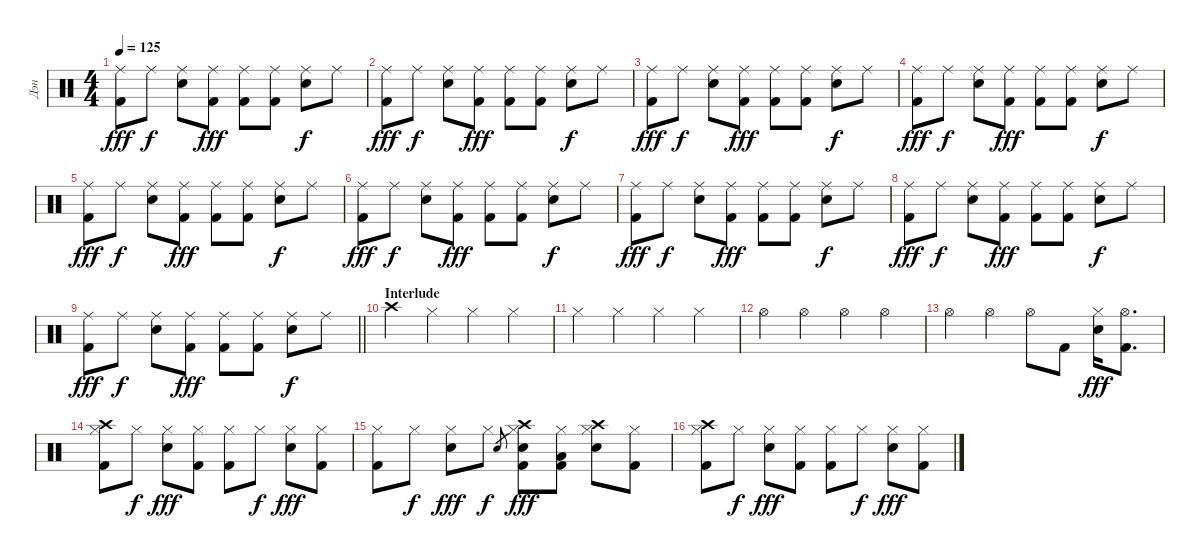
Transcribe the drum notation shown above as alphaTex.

\track ("Дэн" "Дэн") {instrument percussion}
\staff {score}
\articulation defaults
\ts (4 4)
\tempo 125
\clef neutral
\ks c
("Ride (middle)" "Kick (hit) 2").8{dy fff} "Ride (middle)".8{dy f} ("Ride (middle)" "Electric Snare (hit)").8 ("Ride (middle)" "Kick (hit) 2").8{dy fff} ("Ride (middle)" "Kick (hit) 2").8 ("Ride (middle)" "Kick (hit) 2").8 ("Ride (middle)" "Electric Snare (hit)").8{dy f} "Ride (middle)".8 |
("Ride (middle)" "Kick (hit) 2").8{dy fff} "Ride (middle)".8{dy f} ("Ride (middle)" "Electric Snare (hit)").8 ("Ride (middle)" "Kick (hit) 2").8{dy fff} ("Ride (middle)" "Kick (hit) 2").8 ("Ride (middle)" "Kick (hit) 2").8 ("Ride (middle)" "Electric Snare (hit)").8{dy f} "Ride (middle)".8 |
("Ride (middle)" "Kick (hit) 2").8{dy fff} "Ride (middle)".8{dy f} ("Ride (middle)" "Electric Snare (hit)").8 ("Ride (middle)" "Kick (hit) 2").8{dy fff} ("Ride (middle)" "Kick (hit) 2").8 ("Ride (middle)" "Kick (hit) 2").8 ("Ride (middle)" "Electric Snare (hit)").8{dy f} "Ride (middle)".8 |
("Ride (middle)" "Kick (hit) 2").8{dy fff} "Ride (middle)".8{dy f} ("Ride (middle)" "Electric Snare (hit)").8 ("Ride (middle)" "Kick (hit) 2").8{dy fff} ("Ride (middle)" "Kick (hit) 2").8 ("Ride (middle)" "Kick (hit) 2").8 ("Ride (middle)" "Electric Snare (hit)").8{dy f} "Ride (middle)".8 |
("Ride (middle)" "Kick (hit) 2").8{dy fff} "Ride (middle)".8{dy f} ("Ride (middle)" "Electric Snare (hit)").8 ("Ride (middle)" "Kick (hit) 2").8{dy fff} ("Ride (middle)" "Kick (hit) 2").8 ("Ride (middle)" "Kick (hit) 2").8 ("Ride (middle)" "Electric Snare (hit)").8{dy f} "Ride (middle)".8 |
("Ride (middle)" "Kick (hit) 2").8{dy fff} "Ride (middle)".8{dy f} ("Ride (middle)" "Electric Snare (hit)").8 ("Ride (middle)" "Kick (hit) 2").8{dy fff} ("Ride (middle)" "Kick (hit) 2").8 ("Ride (middle)" "Kick (hit) 2").8 ("Ride (middle)" "Electric Snare (hit)").8{dy f} "Ride (middle)".8 |
("Ride (middle)" "Kick (hit) 2").8{dy fff} "Ride (middle)".8{dy f} ("Ride (middle)" "Electric Snare (hit)").8 ("Ride (middle)" "Kick (hit) 2").8{dy fff} ("Ride (middle)" "Kick (hit) 2").8 ("Ride (middle)" "Kick (hit) 2").8 ("Ride (middle)" "Electric Snare (hit)").8{dy f} "Ride (middle)".8 |
("Ride (middle)" "Kick (hit) 2").8{dy fff} "Ride (middle)".8{dy f} ("Ride (middle)" "Electric Snare (hit)").8 ("Ride (middle)" "Kick (hit) 2").8{dy fff} ("Ride (middle)" "Kick (hit) 2").8 ("Ride (middle)" "Kick (hit) 2").8 ("Ride (middle)" "Electric Snare (hit)").8{dy f} "Ride (middle)".8 |
\barLineRight lightlight
("Ride (middle)" "Kick (hit) 2").8{dy fff} "Ride (middle)".8{dy f} ("Ride (middle)" "Electric Snare (hit)").8 ("Ride (middle)" "Kick (hit) 2").8{dy fff} ("Ride (middle)" "Kick (hit) 2").8 ("Ride (middle)" "Kick (hit) 2").8 ("Ride (middle)" "Electric Snare (hit)").8{dy f} "Ride (middle)".8 |
\section ("" "Interlude")
"Crash high (hit)".4 "Hi-Hat (closed)".4 "Hi-Hat (closed)".4 "Hi-Hat (closed)".4 |
"Hi-Hat (closed)".4 "Hi-Hat (closed)".4 "Hi-Hat (closed)".4 "Hi-Hat (closed)".4 |
"Hi-Hat (open)".4 "Hi-Hat (open)".4 "Hi-Hat (open)".4 "Hi-Hat (open)".4 |
"Hi-Hat (open)".4 "Hi-Hat (open)".4 "Hi-Hat (open)".8 "Kick (hit) 2".8 ("Hi-Hat (closed)" "Electric Snare (hit)").16{dy fff} ("Hi-Hat (open)" "Kick (hit) 2").8{d} |
("Crash high (hit)" "Hi-Hat (closed)" "Kick (hit) 2").8 "Hi-Hat (closed)".8{dy f} ("Hi-Hat (closed)" "Electric Snare (hit)").8{dy fff} ("Hi-Hat (closed)" "Kick (hit) 2").8 ("Hi-Hat (closed)" "Kick (hit) 2").8 "Hi-Hat (closed)".8{dy f} ("Hi-Hat (closed)" "Electric Snare (hit)").8{dy fff} ("Hi-Hat (closed)" "Kick (hit) 2").8 |
("Hi-Hat (closed)" "Kick (hit) 2").8 "Hi-Hat (closed)".8{dy f} ("Hi-Hat (closed)" "Electric Snare (hit)").8{dy fff} "Hi-Hat (closed)".8{dy f} "Electric Snare (hit)".8{gr} ("Crash high (hit)" "Hi-Hat (closed)" "Electric Snare (hit)" "Kick (hit) 2").8{dy fff} ("Hi-Hat (closed)" "Low Tom (hit)" "Kick (hit) 2").8 ("Crash high (hit)" "Hi-Hat (closed)" "Electric Snare (hit)").8 ("Hi-Hat (closed)" "Kick (hit) 2").8 |
("Crash high (hit)" "Hi-Hat (closed)" "Kick (hit) 2").8 "Hi-Hat (closed)".8{dy f} ("Hi-Hat (closed)" "Electric Snare (hit)").8{dy fff} ("Hi-Hat (closed)" "Kick (hit) 2").8 ("Hi-Hat (closed)" "Kick (hit) 2").8 "Hi-Hat (closed)".8{dy f} ("Hi-Hat (closed)" "Electric Snare (hit)").8{dy fff} ("Hi-Hat (closed)" "Kick (hit) 2").8
